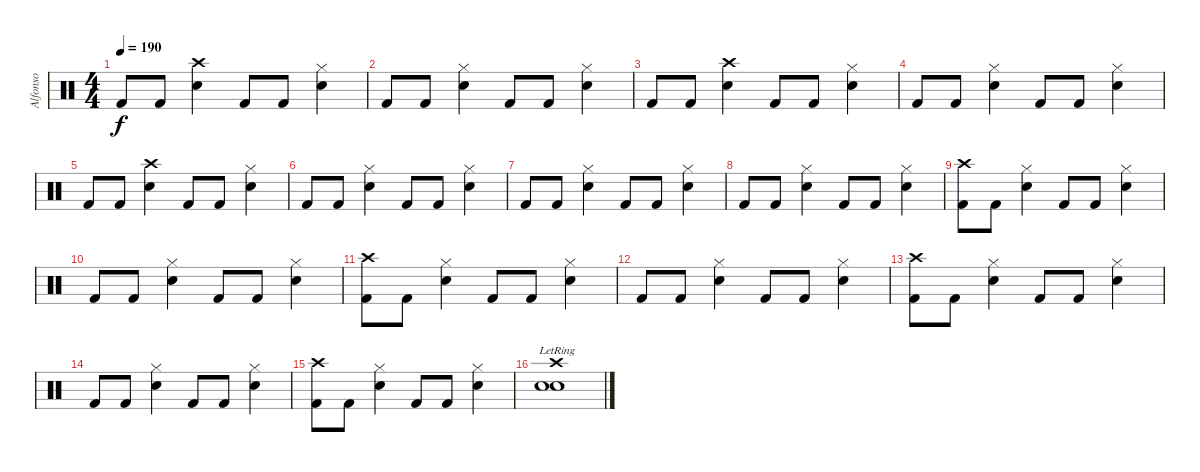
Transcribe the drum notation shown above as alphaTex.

\track ("Alfonso" "Alfonso") {instrument percussion}
\staff {score}
\articulation defaults
\ts (4 4)
\tempo 190
\clef neutral
\ks c "Kick (hit) 2".8{dy f} "Kick (hit) 2".8
("Crash high (hit)" "Electric Snare (hit)").4 "Kick (hit) 2".8 "Kick (hit) 2".8 ("Hi-Hat (closed)" "Electric Snare (hit)").4 |
"Kick (hit) 2".8 "Kick (hit) 2".8 ("Hi-Hat (closed)" "Electric Snare (hit)").4 "Kick (hit) 2".8 "Kick (hit) 2".8 ("Hi-Hat (closed)" "Electric Snare (hit)").4 |
"Kick (hit) 2".8 "Kick (hit) 2".8 ("Crash high (hit)" "Electric Snare (hit)").4 "Kick (hit) 2".8 "Kick (hit) 2".8 ("Hi-Hat (closed)" "Electric Snare (hit)").4 |
"Kick (hit) 2".8 "Kick (hit) 2".8 ("Hi-Hat (closed)" "Electric Snare (hit)").4 "Kick (hit) 2".8 "Kick (hit) 2".8 ("Hi-Hat (closed)" "Electric Snare (hit)").4 |
"Kick (hit) 2".8 "Kick (hit) 2".8 ("Crash high (hit)" "Electric Snare (hit)").4 "Kick (hit) 2".8 "Kick (hit) 2".8 ("Hi-Hat (closed)" "Electric Snare (hit)").4 |
"Kick (hit) 2".8 "Kick (hit) 2".8 ("Hi-Hat (closed)" "Electric Snare (hit)").4 "Kick (hit) 2".8 "Kick (hit) 2".8 ("Hi-Hat (closed)" "Electric Snare (hit)").4 |
"Kick (hit) 2".8 "Kick (hit) 2".8 ("Hi-Hat (closed)" "Electric Snare (hit)").4 "Kick (hit) 2".8 "Kick (hit) 2".8 ("Hi-Hat (closed)" "Electric Snare (hit)").4 |
"Kick (hit) 2".8 "Kick (hit) 2".8 ("Hi-Hat (closed)" "Electric Snare (hit)").4 "Kick (hit) 2".8 "Kick (hit) 2".8 ("Hi-Hat (closed)" "Electric Snare (hit)").4 |
("Crash high (hit)" "Kick (hit) 2").8 "Kick (hit) 2".8 ("Hi-Hat (closed)" "Electric Snare (hit)").4 "Kick (hit) 2".8 "Kick (hit) 2".8 ("Hi-Hat (closed)" "Electric Snare (hit)").4 |
"Kick (hit) 2".8 "Kick (hit) 2".8 ("Hi-Hat (closed)" "Electric Snare (hit)").4 "Kick (hit) 2".8 "Kick (hit) 2".8 ("Hi-Hat (closed)" "Electric Snare (hit)").4 |
("Crash high (hit)" "Kick (hit) 2").8 "Kick (hit) 2".8 ("Hi-Hat (closed)" "Electric Snare (hit)").4 "Kick (hit) 2".8 "Kick (hit) 2".8 ("Hi-Hat (closed)" "Electric Snare (hit)").4 |
"Kick (hit) 2".8 "Kick (hit) 2".8 ("Hi-Hat (closed)" "Electric Snare (hit)").4 "Kick (hit) 2".8 "Kick (hit) 2".8 ("Hi-Hat (closed)" "Electric Snare (hit)").4 |
("Crash high (hit)" "Kick (hit) 2").8 "Kick (hit) 2".8 ("Hi-Hat (closed)" "Electric Snare (hit)").4 "Kick (hit) 2".8 "Kick (hit) 2".8 ("Hi-Hat (closed)" "Electric Snare (hit)").4 |
"Kick (hit) 2".8 "Kick (hit) 2".8 ("Hi-Hat (closed)" "Electric Snare (hit)").4 "Kick (hit) 2".8 "Kick (hit) 2".8 ("Hi-Hat (closed)" "Electric Snare (hit)").4 |
("Crash high (hit)" "Kick (hit) 2").8 "Kick (hit) 2".8 ("Hi-Hat (closed)" "Electric Snare (hit)").4 "Kick (hit) 2".8 "Kick (hit) 2".8 ("Hi-Hat (closed)" "Electric Snare (hit)").4 |
("Crash high (hit)"{lr} "Electric Snare (hit)"{lr} "Snare (hit) 2"{lr}).1
